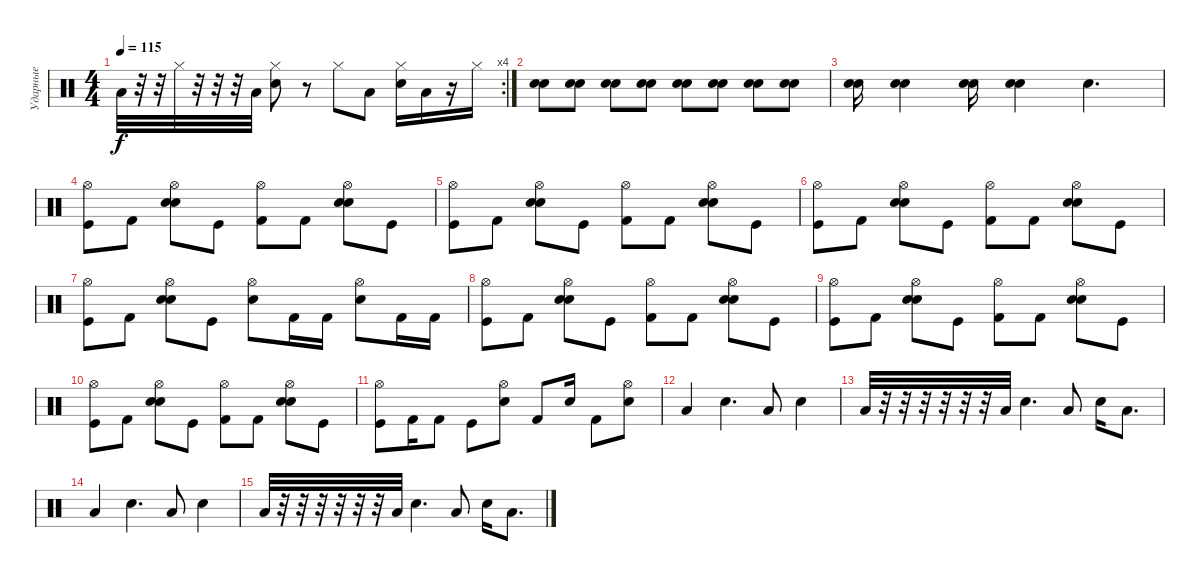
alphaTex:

\track ("Ударные" "Ударные") {instrument percussion}
\staff {score}
\articulation defaults
\rc 4
\ts (4 4)
\tempo 115
\clef neutral
\ks c "Low Tom (hit)".32{dy f}
r.32 r.32 "Hi-Hat (closed)".32 r.32 r.32 r.32 "Low Tom (hit)".32 ("Hi-Hat (closed)" "Snare (hit) 2").8 r.8 "Hi-Hat (closed)".8 "Low Tom (hit)".8 ("Hi-Hat (closed)" "Snare (hit) 2").16 "Low Tom (hit)".16 r.16 "Hi-Hat (closed)".16 |
("Electric Snare (hit)" "Snare (hit) 2").8 ("Electric Snare (hit)" "Snare (hit) 2").8 ("Electric Snare (hit)" "Snare (hit) 2").8 ("Electric Snare (hit)" "Snare (hit) 2").8 ("Electric Snare (hit)" "Snare (hit) 2").8 ("Electric Snare (hit)" "Snare (hit) 2").8 ("Electric Snare (hit)" "Snare (hit) 2").8 ("Electric Snare (hit)" "Snare (hit) 2").8 |
("Electric Snare (hit)" "Snare (hit) 2").16 ("Electric Snare (hit)" "Snare (hit) 2").4 ("Electric Snare (hit)" "Snare (hit) 2").16 ("Electric Snare (hit)" "Snare (hit) 2").4 "Snare (hit) 2".4{d} |
("Hi-Hat (open)" "Kick (hit)").8 "Kick (hit) 2".8 ("Snare (hit) 2" "Hi-Hat (open)" "Snare (hit) 2").8 "Kick (hit)".8 ("Hi-Hat (open)" "Kick (hit) 2").8 "Kick (hit) 2".8 ("Snare (hit) 2" "Hi-Hat (open)" "Snare (hit) 2").8 "Kick (hit)".8 |
("Hi-Hat (open)" "Kick (hit)").8 "Kick (hit) 2".8 ("Snare (hit) 2" "Hi-Hat (open)" "Snare (hit) 2").8 "Kick (hit)".8 ("Hi-Hat (open)" "Kick (hit) 2").8 "Kick (hit) 2".8 ("Snare (hit) 2" "Hi-Hat (open)" "Snare (hit) 2").8 "Kick (hit)".8 |
("Hi-Hat (open)" "Kick (hit)").8 "Kick (hit) 2".8 ("Snare (hit) 2" "Hi-Hat (open)" "Snare (hit) 2").8 "Kick (hit)".8 ("Hi-Hat (open)" "Kick (hit) 2").8 "Kick (hit) 2".8 ("Snare (hit) 2" "Hi-Hat (open)" "Snare (hit) 2").8 "Kick (hit)".8 |
("Hi-Hat (open)" "Kick (hit)").8 "Kick (hit) 2".8 ("Snare (hit) 2" "Hi-Hat (open)" "Snare (hit) 2").8 "Kick (hit)".8 ("Hi-Hat (open)" "Snare (hit) 2").8 "Kick (hit) 2".16 "Kick (hit) 2".16 ("Hi-Hat (open)" "Snare (hit) 2").8 "Kick (hit) 2".16 "Kick (hit) 2".16 |
("Hi-Hat (open)" "Kick (hit)").8 "Kick (hit) 2".8 ("Snare (hit) 2" "Hi-Hat (open)" "Snare (hit) 2").8 "Kick (hit)".8 ("Hi-Hat (open)" "Kick (hit) 2").8 "Kick (hit) 2".8 ("Snare (hit) 2" "Hi-Hat (open)" "Snare (hit) 2").8 "Kick (hit)".8 |
("Hi-Hat (open)" "Kick (hit)").8 "Kick (hit) 2".8 ("Snare (hit) 2" "Hi-Hat (open)" "Snare (hit) 2").8 "Kick (hit)".8 ("Hi-Hat (open)" "Kick (hit) 2").8 "Kick (hit) 2".8 ("Snare (hit) 2" "Hi-Hat (open)" "Snare (hit) 2").8 "Kick (hit)".8 |
("Hi-Hat (open)" "Kick (hit)").8 "Kick (hit) 2".8 ("Snare (hit) 2" "Hi-Hat (open)" "Snare (hit) 2").8 "Kick (hit)".8 ("Hi-Hat (open)" "Kick (hit) 2").8 "Kick (hit) 2".8 ("Snare (hit) 2" "Hi-Hat (open)" "Snare (hit) 2").8 "Kick (hit)".8 |
("Hi-Hat (open)" "Kick (hit)").8 "Kick (hit) 2".16 "Kick (hit) 2".8 "Kick (hit)".8 ("Hi-Hat (open)" "Snare (hit) 2").8 "Kick (hit) 2".8 "Snare (hit) 2".16 "Kick (hit) 2".8 ("Hi-Hat (open)" "Snare (hit) 2").8 |
"Low Tom (hit)".4 "Snare (hit) 2".4{d} "Low Tom (hit)".8 "Snare (hit) 2".4 |
"Low Tom (hit)".32 r.32 r.32 r.32 r.32 r.32 r.32 "Low Tom (hit)".32 "Snare (hit) 2".4{d} "Low Tom (hit)".8 "Snare (hit) 2".16 "Low Tom (hit)".8{d} |
"Low Tom (hit)".4 "Snare (hit) 2".4{d} "Low Tom (hit)".8 "Snare (hit) 2".4 |
"Low Tom (hit)".32 r.32 r.32 r.32 r.32 r.32 r.32 "Low Tom (hit)".32 "Snare (hit) 2".4{d} "Low Tom (hit)".8 "Snare (hit) 2".16 "Low Tom (hit)".8{d}
